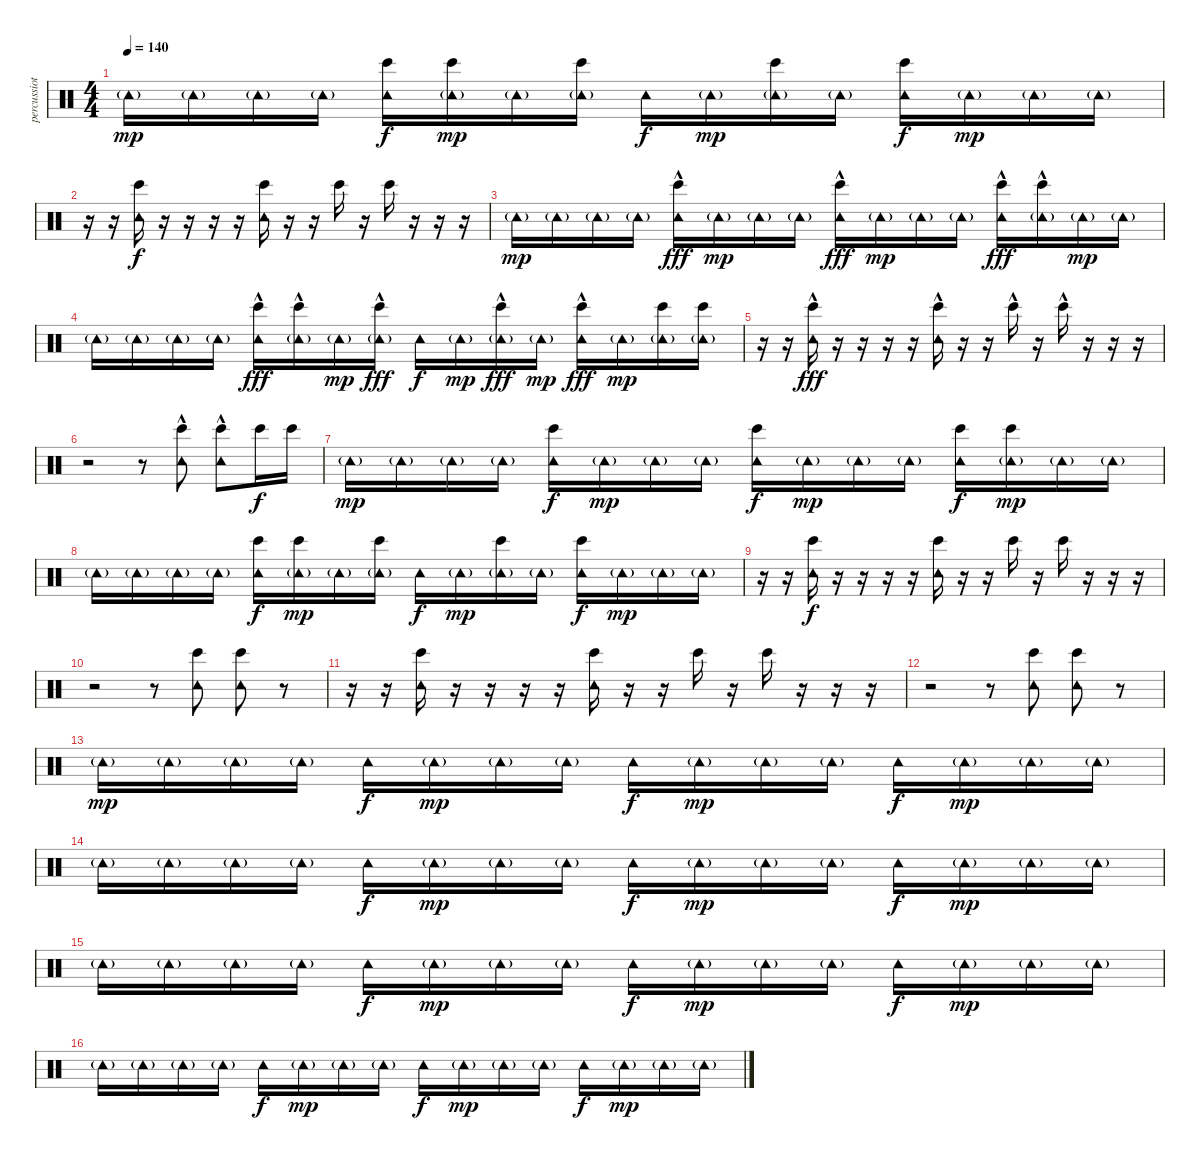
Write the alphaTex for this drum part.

\track ("percussiot" "percussiot") {instrument percussion}
\staff {score}
\articulation defaults
\ts (4 4)
\tempo 140
\clef neutral
\ks c "Tambourine (hit)"{g}.16{dy mp} "Tambourine (hit)"{g}.16 "Tambourine (hit)"{g}.16 "Tambourine (hit)"{g}.16
("Tambourine (hit)" "Bongo High (hit)").16{dy f} ("Tambourine (hit)"{g} "Bongo High (hit)").16{dy mp} "Tambourine (hit)"{g}.16 ("Tambourine (hit)"{g} "Bongo High (hit)").16 "Tambourine (hit)".16{dy f} "Tambourine (hit)"{g}.16{dy mp} ("Tambourine (hit)"{g} "Bongo High (hit)").16 "Tambourine (hit)"{g}.16 ("Tambourine (hit)" "Bongo High (hit)").16{dy f} "Tambourine (hit)"{g}.16{dy mp} "Tambourine (hit)"{g}.16 "Tambourine (hit)"{g}.16 |
r.16 r.16 ("Tambourine (hit)" "Bongo High (hit)").16{dy f} r.16 r.16 r.16 r.16 ("Tambourine (hit)" "Bongo High (hit)").16 r.16 r.16 "Bongo High (hit)".16 r.16 "Bongo High (hit)".16 r.16 r.16 r.16 |
"Tambourine (hit)"{g}.16{dy mp} "Tambourine (hit)"{g}.16 "Tambourine (hit)"{g}.16 "Tambourine (hit)"{g}.16 ("Tambourine (hit)" "Bongo High (hit)"{hac}).16{dy fff} "Tambourine (hit)"{g}.16{dy mp} "Tambourine (hit)"{g}.16 "Tambourine (hit)"{g}.16 ("Tambourine (hit)" "Bongo High (hit)"{hac}).16{dy fff} "Tambourine (hit)"{g}.16{dy mp} "Tambourine (hit)"{g}.16 "Tambourine (hit)"{g}.16 ("Tambourine (hit)" "Bongo High (hit)"{hac}).16{dy fff} ("Tambourine (hit)"{g} "Bongo High (hit)"{hac}).16 "Tambourine (hit)"{g}.16{dy mp} "Tambourine (hit)"{g}.16 |
"Tambourine (hit)"{g}.16 "Tambourine (hit)"{g}.16 "Tambourine (hit)"{g}.16 "Tambourine (hit)"{g}.16 ("Tambourine (hit)" "Bongo High (hit)"{hac}).16{dy fff} ("Tambourine (hit)"{g} "Bongo High (hit)"{hac}).16 "Tambourine (hit)"{g}.16{dy mp} ("Tambourine (hit)"{g} "Bongo High (hit)"{hac}).16{dy fff} "Tambourine (hit)".16{dy f} "Tambourine (hit)"{g}.16{dy mp} ("Tambourine (hit)"{g} "Bongo High (hit)"{hac}).16{dy fff} "Tambourine (hit)"{g}.16{dy mp} ("Tambourine (hit)" "Bongo High (hit)"{hac}).16{dy fff} "Tambourine (hit)"{g}.16{dy mp} ("Tambourine (hit)"{g} "Bongo High (hit)").16 ("Tambourine (hit)"{g} "Bongo High (hit)").16 |
r.16 r.16 ("Tambourine (hit)" "Bongo High (hit)"{hac}).16{dy fff} r.16 r.16 r.16 r.16 ("Tambourine (hit)" "Bongo High (hit)"{hac}).16 r.16 r.16 "Bongo High (hit)"{hac}.16 r.16 "Bongo High (hit)"{hac}.16 r.16 r.16 r.16 |
r.2 r.8 ("Tambourine (hit)" "Bongo High (hit)"{hac}).8 ("Tambourine (hit)" "Bongo High (hit)"{hac}).8 "Bongo High (hit)".16{dy f} "Bongo High (hit)".16 |
"Tambourine (hit)"{g}.16{dy mp} "Tambourine (hit)"{g}.16 "Tambourine (hit)"{g}.16 "Tambourine (hit)"{g}.16 ("Tambourine (hit)" "Bongo High (hit)").16{dy f} "Tambourine (hit)"{g}.16{dy mp} "Tambourine (hit)"{g}.16 "Tambourine (hit)"{g}.16 ("Tambourine (hit)" "Bongo High (hit)").16{dy f} "Tambourine (hit)"{g}.16{dy mp} "Tambourine (hit)"{g}.16 "Tambourine (hit)"{g}.16 ("Tambourine (hit)" "Bongo High (hit)").16{dy f} ("Tambourine (hit)"{g} "Bongo High (hit)").16{dy mp} "Tambourine (hit)"{g}.16 "Tambourine (hit)"{g}.16 |
"Tambourine (hit)"{g}.16 "Tambourine (hit)"{g}.16 "Tambourine (hit)"{g}.16 "Tambourine (hit)"{g}.16 ("Tambourine (hit)" "Bongo High (hit)").16{dy f} ("Tambourine (hit)"{g} "Bongo High (hit)").16{dy mp} "Tambourine (hit)"{g}.16 ("Tambourine (hit)"{g} "Bongo High (hit)").16 "Tambourine (hit)".16{dy f} "Tambourine (hit)"{g}.16{dy mp} ("Tambourine (hit)"{g} "Bongo High (hit)").16 "Tambourine (hit)"{g}.16 ("Tambourine (hit)" "Bongo High (hit)").16{dy f} "Tambourine (hit)"{g}.16{dy mp} "Tambourine (hit)"{g}.16 "Tambourine (hit)"{g}.16 |
r.16 r.16 ("Tambourine (hit)" "Bongo High (hit)").16{dy f} r.16 r.16 r.16 r.16 ("Tambourine (hit)" "Bongo High (hit)").16 r.16 r.16 "Bongo High (hit)".16 r.16 "Bongo High (hit)".16 r.16 r.16 r.16 |
r.2 r.8 ("Tambourine (hit)" "Bongo High (hit)").8 ("Tambourine (hit)" "Bongo High (hit)").8 r.8 |
r.16 r.16 ("Tambourine (hit)" "Bongo High (hit)").16 r.16 r.16 r.16 r.16 ("Tambourine (hit)" "Bongo High (hit)").16 r.16 r.16 "Bongo High (hit)".16 r.16 "Bongo High (hit)".16 r.16 r.16 r.16 |
r.2 r.8 ("Tambourine (hit)" "Bongo High (hit)").8 ("Tambourine (hit)" "Bongo High (hit)").8 r.8 |
"Tambourine (hit)"{g}.16{dy mp} "Tambourine (hit)"{g}.16 "Tambourine (hit)"{g}.16 "Tambourine (hit)"{g}.16 "Tambourine (hit)".16{dy f} "Tambourine (hit)"{g}.16{dy mp} "Tambourine (hit)"{g}.16 "Tambourine (hit)"{g}.16 "Tambourine (hit)".16{dy f} "Tambourine (hit)"{g}.16{dy mp} "Tambourine (hit)"{g}.16 "Tambourine (hit)"{g}.16 "Tambourine (hit)".16{dy f} "Tambourine (hit)"{g}.16{dy mp} "Tambourine (hit)"{g}.16 "Tambourine (hit)"{g}.16 |
"Tambourine (hit)"{g}.16 "Tambourine (hit)"{g}.16 "Tambourine (hit)"{g}.16 "Tambourine (hit)"{g}.16 "Tambourine (hit)".16{dy f} "Tambourine (hit)"{g}.16{dy mp} "Tambourine (hit)"{g}.16 "Tambourine (hit)"{g}.16 "Tambourine (hit)".16{dy f} "Tambourine (hit)"{g}.16{dy mp} "Tambourine (hit)"{g}.16 "Tambourine (hit)"{g}.16 "Tambourine (hit)".16{dy f} "Tambourine (hit)"{g}.16{dy mp} "Tambourine (hit)"{g}.16 "Tambourine (hit)"{g}.16 |
"Tambourine (hit)"{g}.16 "Tambourine (hit)"{g}.16 "Tambourine (hit)"{g}.16 "Tambourine (hit)"{g}.16 "Tambourine (hit)".16{dy f} "Tambourine (hit)"{g}.16{dy mp} "Tambourine (hit)"{g}.16 "Tambourine (hit)"{g}.16 "Tambourine (hit)".16{dy f} "Tambourine (hit)"{g}.16{dy mp} "Tambourine (hit)"{g}.16 "Tambourine (hit)"{g}.16 "Tambourine (hit)".16{dy f} "Tambourine (hit)"{g}.16{dy mp} "Tambourine (hit)"{g}.16 "Tambourine (hit)"{g}.16 |
"Tambourine (hit)"{g}.16 "Tambourine (hit)"{g}.16 "Tambourine (hit)"{g}.16 "Tambourine (hit)"{g}.16 "Tambourine (hit)".16{dy f} "Tambourine (hit)"{g}.16{dy mp} "Tambourine (hit)"{g}.16 "Tambourine (hit)"{g}.16 "Tambourine (hit)".16{dy f} "Tambourine (hit)"{g}.16{dy mp} "Tambourine (hit)"{g}.16 "Tambourine (hit)"{g}.16 "Tambourine (hit)".16{dy f} "Tambourine (hit)"{g}.16{dy mp} "Tambourine (hit)"{g}.16 "Tambourine (hit)"{g}.16
